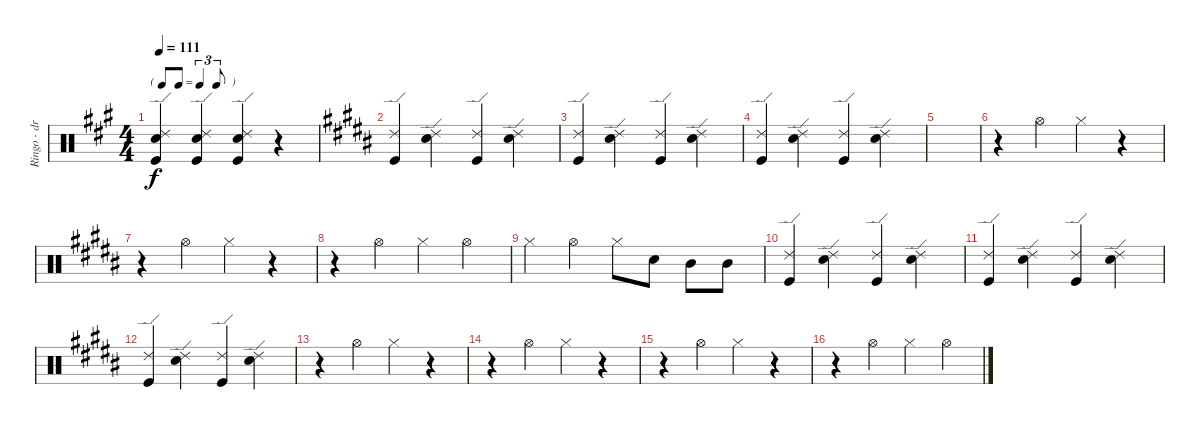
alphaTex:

\track ("Ringo - drums" "Ringo - dr") {instrument percussion}
\staff {score}
\articulation defaults
\ts (4 4)
\tf triplet8th
\tempo 111
\clef neutral
\ks a
("Ride (edge) 2" "Snare (hit) 2" "Kick (hit)").4{dy f} ("Ride (edge) 2" "Snare (hit) 2" "Kick (hit)").4 ("Ride (edge) 2" "Snare (hit) 2" "Kick (hit)").4 r.4 |
\ks b
("Ride (edge) 2" "Kick (hit)").4 ("Ride (edge) 2" "Snare (hit) 2").4 ("Ride (edge) 2" "Kick (hit)").4 ("Ride (edge) 2" "Snare (hit) 2").4 |
("Ride (edge) 2" "Kick (hit)").4 ("Ride (edge) 2" "Snare (hit) 2").4 ("Ride (edge) 2" "Kick (hit)").4 ("Ride (edge) 2" "Snare (hit) 2").4 |
("Ride (edge) 2" "Kick (hit)").4 ("Ride (edge) 2" "Snare (hit) 2").4 ("Ride (edge) 2" "Kick (hit)").4 ("Ride (edge) 2" "Snare (hit) 2").4 |
|
r.4 "Hi-Hat (open)".4 "Hi-Hat (closed)".4 r.4 |
r.4 "Hi-Hat (open)".4 "Hi-Hat (closed)".4 r.4 |
r.4 "Hi-Hat (open)".4 "Hi-Hat (closed)".4 "Hi-Hat (open)".4 |
"Hi-Hat (closed)".4 "Hi-Hat (open)".4 "Hi-Hat (closed)".8 "Snare (hit) 2".8 "Mid Tom (hit)".8 "Mid Tom (hit)".8 |
("Ride (edge) 2" "Kick (hit)").4 ("Ride (edge) 2" "Snare (hit) 2").4 ("Ride (edge) 2" "Kick (hit)").4 ("Ride (edge) 2" "Snare (hit) 2").4 |
("Ride (edge) 2" "Kick (hit)").4 ("Ride (edge) 2" "Snare (hit) 2").4 ("Ride (edge) 2" "Kick (hit)").4 ("Ride (edge) 2" "Snare (hit) 2").4 |
("Ride (edge) 2" "Kick (hit)").4 ("Ride (edge) 2" "Snare (hit) 2").4 ("Ride (edge) 2" "Kick (hit)").4 ("Ride (edge) 2" "Snare (hit) 2").4 |
r.4 "Hi-Hat (open)".4 "Hi-Hat (closed)".4 r.4 |
r.4 "Hi-Hat (open)".4 "Hi-Hat (closed)".4 r.4 |
r.4 "Hi-Hat (open)".4 "Hi-Hat (closed)".4 r.4 |
r.4 "Hi-Hat (open)".4 "Hi-Hat (closed)".4 "Hi-Hat (open)".4
